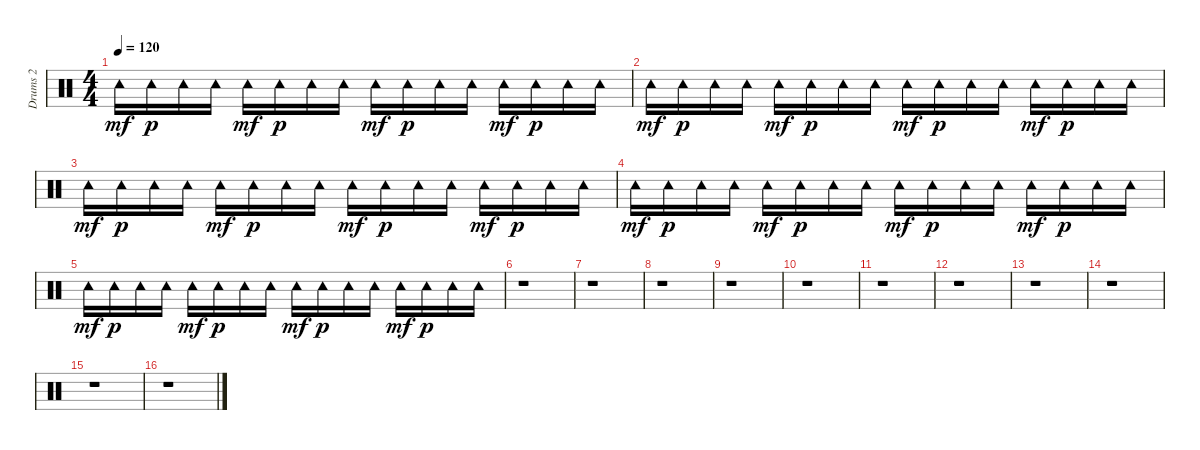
\track ("Drums 2" "Drums 2") {instrument percussion}
\staff {score}
\articulation defaults
\ts (4 4)
\tempo 120
\clef neutral
\ks c "Tambourine (hit)".16{dy mf} "Tambourine (hit)".16{dy p} "Tambourine (hit)".16 "Tambourine (hit)".16 "Tambourine (hit)".16{dy mf} "Tambourine (hit)".16{dy p} "Tambourine (hit)".16 "Tambourine (hit)".16 "Tambourine (hit)".16{dy mf} "Tambourine (hit)".16{dy p} "Tambourine (hit)".16 "Tambourine (hit)".16 "Tambourine (hit)".16{dy mf} "Tambourine (hit)".16{dy p} "Tambourine (hit)".16 "Tambourine (hit)".16
|
"Tambourine (hit)".16{dy mf} "Tambourine (hit)".16{dy p} "Tambourine (hit)".16 "Tambourine (hit)".16 "Tambourine (hit)".16{dy mf} "Tambourine (hit)".16{dy p} "Tambourine (hit)".16 "Tambourine (hit)".16 "Tambourine (hit)".16{dy mf} "Tambourine (hit)".16{dy p} "Tambourine (hit)".16 "Tambourine (hit)".16 "Tambourine (hit)".16{dy mf} "Tambourine (hit)".16{dy p} "Tambourine (hit)".16 "Tambourine (hit)".16 |
"Tambourine (hit)".16{dy mf} "Tambourine (hit)".16{dy p} "Tambourine (hit)".16 "Tambourine (hit)".16 "Tambourine (hit)".16{dy mf} "Tambourine (hit)".16{dy p} "Tambourine (hit)".16 "Tambourine (hit)".16 "Tambourine (hit)".16{dy mf} "Tambourine (hit)".16{dy p} "Tambourine (hit)".16 "Tambourine (hit)".16 "Tambourine (hit)".16{dy mf} "Tambourine (hit)".16{dy p} "Tambourine (hit)".16 "Tambourine (hit)".16 |
"Tambourine (hit)".16{dy mf} "Tambourine (hit)".16{dy p} "Tambourine (hit)".16 "Tambourine (hit)".16 "Tambourine (hit)".16{dy mf} "Tambourine (hit)".16{dy p} "Tambourine (hit)".16 "Tambourine (hit)".16 "Tambourine (hit)".16{dy mf} "Tambourine (hit)".16{dy p} "Tambourine (hit)".16 "Tambourine (hit)".16 "Tambourine (hit)".16{dy mf} "Tambourine (hit)".16{dy p} "Tambourine (hit)".16 "Tambourine (hit)".16 |
"Tambourine (hit)".16{dy mf} "Tambourine (hit)".16{dy p} "Tambourine (hit)".16 "Tambourine (hit)".16 "Tambourine (hit)".16{dy mf} "Tambourine (hit)".16{dy p} "Tambourine (hit)".16 "Tambourine (hit)".16 "Tambourine (hit)".16{dy mf} "Tambourine (hit)".16{dy p} "Tambourine (hit)".16 "Tambourine (hit)".16 "Tambourine (hit)".16{dy mf} "Tambourine (hit)".16{dy p} "Tambourine (hit)".16 "Tambourine (hit)".16 |
r.1 |
r.1 |
r.1 |
r.1 |
r.1 |
r.1 |
r.1 |
r.1 |
r.1 |
r.1 |
r.1
